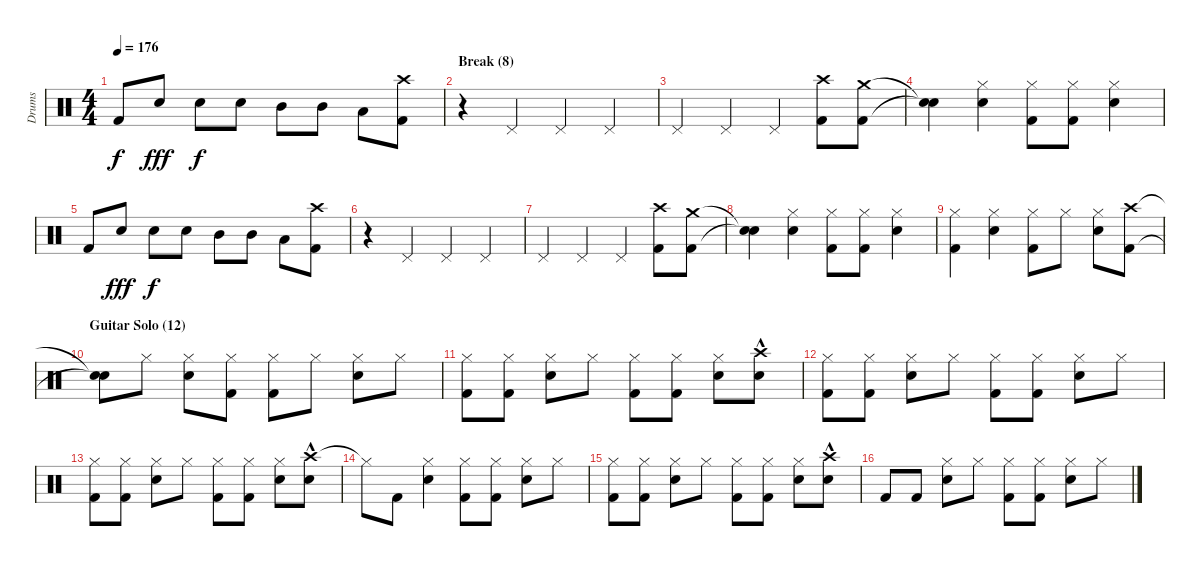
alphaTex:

\track ("Drums" "Drums") {instrument percussion}
\staff {score}
\articulation defaults
\ts (4 4)
\tempo 176
\clef neutral
\ks c "Kick (hit) 2".8{dy f} "Snare (hit) 2".8{dy fff} "Snare (hit) 2".8{dy f} "Snare (hit) 2".8 "Mid Tom (hit)".8 "Mid Tom (hit)".8 "Low Tom (hit)".8
("Crash high (hit)" "Kick (hit) 2").8 |
\section ("" "Break (8)")
r.4 "Pedal Hi-Hat (hit)".4 "Pedal Hi-Hat (hit)".4 "Pedal Hi-Hat (hit)".4 |
"Pedal Hi-Hat (hit)".4 "Pedal Hi-Hat (hit)".4 "Pedal Hi-Hat (hit)".4 ("Crash high (hit)" "Kick (hit) 2").8 ("Crash medium (hit)" "Kick (hit) 2").8 |
("Snare (hit)"{t} "Snare (hit)"{t}).4 ("Hi-Hat (closed)" "Snare (hit) 2").4 ("Hi-Hat (closed)" "Kick (hit) 2").8 ("Hi-Hat (closed)" "Kick (hit) 2").8 ("Hi-Hat (closed)" "Snare (hit) 2").4 |
"Kick (hit) 2".8 "Snare (hit) 2".8{dy fff} "Snare (hit) 2".8{dy f} "Snare (hit) 2".8 "Mid Tom (hit)".8 "Mid Tom (hit)".8 "Low Tom (hit)".8 ("Crash high (hit)" "Kick (hit) 2").8 |
r.4 "Pedal Hi-Hat (hit)".4 "Pedal Hi-Hat (hit)".4 "Pedal Hi-Hat (hit)".4 |
"Pedal Hi-Hat (hit)".4 "Pedal Hi-Hat (hit)".4 "Pedal Hi-Hat (hit)".4 ("Crash high (hit)" "Kick (hit) 2").8 ("Crash medium (hit)" "Kick (hit) 2").8 |
("Snare (hit)"{t} "Snare (hit)"{t}).4 ("Hi-Hat (closed)" "Snare (hit) 2").4 ("Hi-Hat (closed)" "Kick (hit) 2").8 ("Hi-Hat (closed)" "Kick (hit) 2").8 ("Hi-Hat (closed)" "Snare (hit) 2").4 |
("Hi-Hat (closed)" "Kick (hit) 2").4 ("Hi-Hat (closed)" "Snare (hit) 2").4 ("Hi-Hat (closed)" "Kick (hit) 2").8 "Hi-Hat (closed)".8 ("Hi-Hat (closed)" "Snare (hit) 2").8 ("Crash high (hit)" "Kick (hit) 2").8 |
\section ("" "Guitar Solo (12)")
("Snare (hit)"{t} "Snare (hit)"{t}).8 "Hi-Hat (closed)".8 ("Hi-Hat (closed)" "Snare (hit) 2").8 ("Hi-Hat (closed)" "Kick (hit) 2").8 ("Hi-Hat (closed)" "Kick (hit) 2").8 "Hi-Hat (closed)".8 ("Hi-Hat (closed)" "Snare (hit) 2").8 "Hi-Hat (closed)".8 |
("Hi-Hat (closed)" "Kick (hit) 2").8 ("Hi-Hat (closed)" "Kick (hit) 2").8 ("Hi-Hat (closed)" "Snare (hit) 2").8 "Hi-Hat (closed)".8 ("Hi-Hat (closed)" "Kick (hit) 2").8 ("Hi-Hat (closed)" "Kick (hit) 2").8 ("Hi-Hat (closed)" "Snare (hit) 2").8 ("Crash high (hit)"{hac} "Snare (hit) 2").8 |
("Hi-Hat (closed)" "Kick (hit) 2").8 ("Hi-Hat (closed)" "Kick (hit) 2").8 ("Hi-Hat (closed)" "Snare (hit) 2").8 "Hi-Hat (closed)".8 ("Hi-Hat (closed)" "Kick (hit) 2").8 ("Hi-Hat (closed)" "Kick (hit) 2").8 ("Hi-Hat (closed)" "Snare (hit) 2").8 "Hi-Hat (closed)".8 |
("Hi-Hat (closed)" "Kick (hit) 2").8 ("Hi-Hat (closed)" "Kick (hit) 2").8 ("Hi-Hat (closed)" "Snare (hit) 2").8 "Hi-Hat (closed)".8 ("Hi-Hat (closed)" "Kick (hit) 2").8 ("Hi-Hat (closed)" "Kick (hit) 2").8 ("Hi-Hat (closed)" "Snare (hit) 2").8 ("Crash high (hit)"{hac} "Snare (hit) 2").8 |
"Hi-Hat (closed)"{t}.8 "Kick (hit) 2".8 ("Hi-Hat (closed)" "Snare (hit) 2").4 ("Hi-Hat (closed)" "Kick (hit) 2").8 ("Hi-Hat (closed)" "Kick (hit) 2").8 ("Hi-Hat (closed)" "Snare (hit) 2").8 "Hi-Hat (closed)".8 |
("Hi-Hat (closed)" "Kick (hit) 2").8 ("Hi-Hat (closed)" "Kick (hit) 2").8 ("Hi-Hat (closed)" "Snare (hit) 2").8 "Hi-Hat (closed)".8 ("Hi-Hat (closed)" "Kick (hit) 2").8 ("Hi-Hat (closed)" "Kick (hit) 2").8 ("Hi-Hat (closed)" "Snare (hit) 2").8 ("Crash high (hit)"{hac} "Snare (hit) 2").8 |
"Kick (hit) 2".8 "Kick (hit) 2".8 ("Hi-Hat (closed)" "Snare (hit) 2").8 "Hi-Hat (closed)".8 ("Hi-Hat (closed)" "Kick (hit) 2").8 ("Hi-Hat (closed)" "Kick (hit) 2").8 ("Hi-Hat (closed)" "Snare (hit) 2").8 "Hi-Hat (closed)".8
